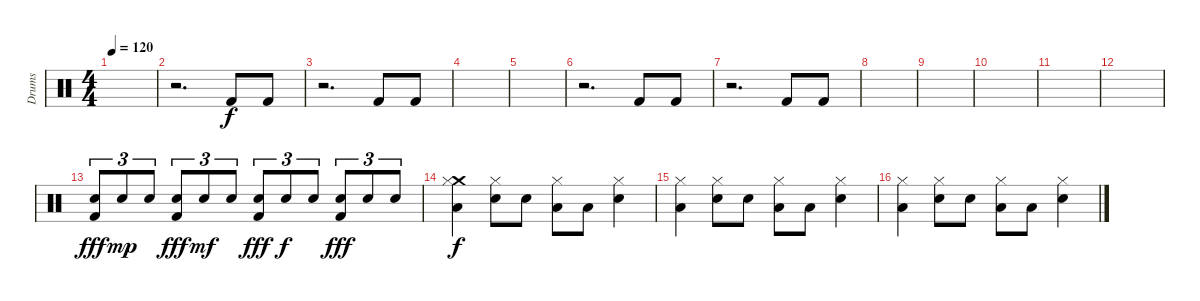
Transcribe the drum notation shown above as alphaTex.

\track ("Drums" "Drums") {instrument percussion}
\staff {score}
\articulation defaults
\ts (4 4)
\tempo 120
\clef neutral
\ks c
|
r.2{d} "Kick (hit) 2".8 "Kick (hit) 2".8 |
r.2{d} "Kick (hit) 2".8 "Kick (hit) 2".8 |
|
|
r.2{d} "Kick (hit) 2".8 "Kick (hit) 2".8 |
r.2{d} "Kick (hit) 2".8 "Kick (hit) 2".8 |
|
|
|
|
|
("Electric Snare (hit)" "Kick (hit) 2").8{tu (3 2) dy fff} "Electric Snare (hit)".8{tu (3 2) dy mp} "Electric Snare (hit)".8{tu (3 2)} ("Electric Snare (hit)" "Kick (hit) 2").8{tu (3 2) dy fff} "Electric Snare (hit)".8{tu (3 2) dy mf} "Electric Snare (hit)".8{tu (3 2)} ("Electric Snare (hit)" "Kick (hit) 2").8{tu (3 2) dy fff} "Electric Snare (hit)".8{tu (3 2) dy f} "Electric Snare (hit)".8{tu (3 2)} ("Electric Snare (hit)" "Kick (hit) 2").8{tu (3 2) dy fff} "Electric Snare (hit)".8{tu (3 2)} "Electric Snare (hit)".8{tu (3 2)} |
("Crash medium (hit)" "Hi-Hat (closed)" "Low Floor Tom (hit)").4{dy f} ("Hi-Hat (closed)" "Electric Snare (hit)").8 "Electric Snare (hit)".8 ("Hi-Hat (closed)" "Low Floor Tom (hit)").8 "Low Floor Tom (hit)".8 ("Hi-Hat (closed)" "Electric Snare (hit)").4 |
("Hi-Hat (closed)" "Low Floor Tom (hit)").4 ("Hi-Hat (closed)" "Electric Snare (hit)").8 "Electric Snare (hit)".8 ("Hi-Hat (closed)" "Low Floor Tom (hit)").8 "Low Floor Tom (hit)".8 ("Hi-Hat (closed)" "Electric Snare (hit)").4 |
("Hi-Hat (closed)" "Low Floor Tom (hit)").4 ("Hi-Hat (closed)" "Electric Snare (hit)").8 "Electric Snare (hit)".8 ("Hi-Hat (closed)" "Low Floor Tom (hit)").8 "Low Floor Tom (hit)".8 ("Hi-Hat (closed)" "Electric Snare (hit)").4
